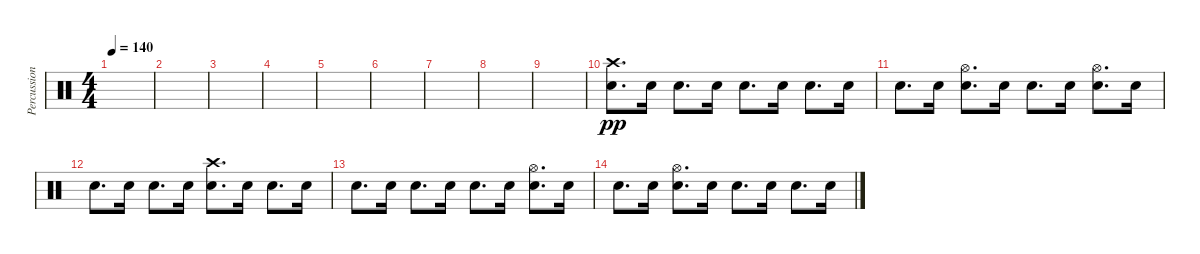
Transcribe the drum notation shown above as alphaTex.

\track ("Percussions" "Percussion") {instrument percussion}
\staff {score}
\articulation defaults
\ts (4 4)
\tempo 140
\clef neutral
\ks c
|
|
|
|
|
|
|
|
|
("Crash high (hit)" "Electric Snare (hit)").8{d dy pp} "Electric Snare (hit)".16 "Electric Snare (hit)".8{d} "Electric Snare (hit)".16 "Electric Snare (hit)".8{d} "Electric Snare (hit)".16 "Electric Snare (hit)".8{d} "Electric Snare (hit)".16 |
"Electric Snare (hit)".8{d} "Electric Snare (hit)".16 ("Hi-Hat (open)" "Electric Snare (hit)").8{d} "Electric Snare (hit)".16 "Electric Snare (hit)".8{d} "Electric Snare (hit)".16 ("Hi-Hat (open)" "Electric Snare (hit)").8{d} "Electric Snare (hit)".16 |
"Electric Snare (hit)".8{d} "Electric Snare (hit)".16 "Electric Snare (hit)".8{d} "Electric Snare (hit)".16 ("Crash high (hit)" "Electric Snare (hit)").8{d} "Electric Snare (hit)".16 "Electric Snare (hit)".8{d} "Electric Snare (hit)".16 |
"Electric Snare (hit)".8{d} "Electric Snare (hit)".16 "Electric Snare (hit)".8{d} "Electric Snare (hit)".16 "Electric Snare (hit)".8{d} "Electric Snare (hit)".16 ("Hi-Hat (open)" "Electric Snare (hit)").8{d} "Electric Snare (hit)".16 |
"Electric Snare (hit)".8{d} "Electric Snare (hit)".16 ("Hi-Hat (open)" "Electric Snare (hit)").8{d} "Electric Snare (hit)".16 "Electric Snare (hit)".8{d} "Electric Snare (hit)".16 "Electric Snare (hit)".8{d} "Electric Snare (hit)".16
